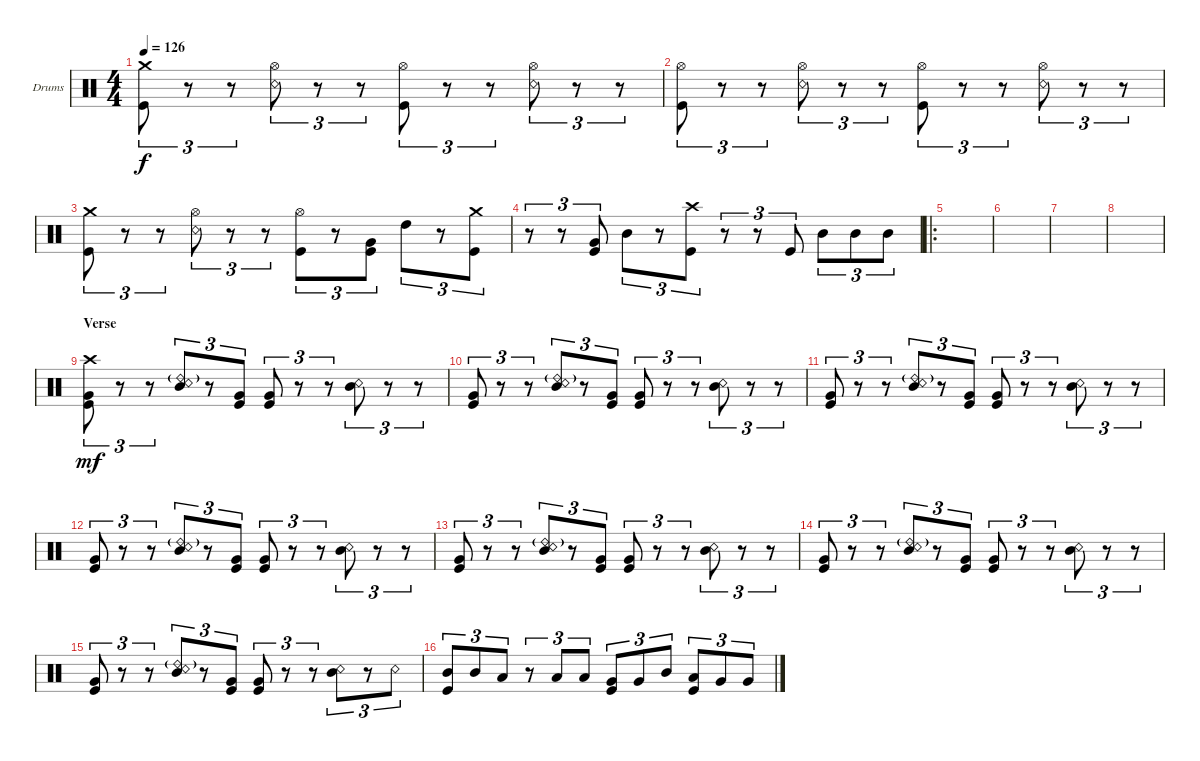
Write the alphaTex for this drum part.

\defaultSystemsLayout 4
\bracketExtendMode groupsimilarinstruments
\firstSystemTrackNameOrientation horizontal
\otherSystemsTrackNameOrientation horizontal
\track ("Dominic Howard" "Drums") {instrument percussion}
\staff {score}
\articulation defaults
\ts (4 4)
\tempo 126
\clef neutral
\ks c
("Kick (hit)" "Crash medium (hit)").8{tu (3 2) dy f} r.8{tu (3 2)} r.8{tu (3 2)} ("Snare (rim shot)" "Hi-Hat (open)").8{tu (3 2)} r.8{tu (3 2)} r.8{tu (3 2)} ("Kick (hit)" "Hi-Hat (open)").8{tu (3 2)} r.8{tu (3 2)} r.8{tu (3 2)} ("Snare (rim shot)" "Hi-Hat (open)").8{tu (3 2)} r.8{tu (3 2)} r.8{tu (3 2)} |
("Kick (hit)" "Hi-Hat (open)").8{tu (3 2)} r.8{tu (3 2)} r.8{tu (3 2)} ("Snare (rim shot)" "Hi-Hat (open)").8{tu (3 2)} r.8{tu (3 2)} r.8{tu (3 2)} ("Kick (hit)" "Hi-Hat (open)").8{tu (3 2)} r.8{tu (3 2)} r.8{tu (3 2)} ("Snare (rim shot)" "Hi-Hat (open)").8{tu (3 2)} r.8{tu (3 2)} r.8{tu (3 2)} |
("Kick (hit)" "Crash medium (hit)").8{tu (3 2)} r.8{tu (3 2)} r.8{tu (3 2)} ("Snare (rim shot)" "Hi-Hat (open)").8{tu (3 2)} r.8{tu (3 2)} r.8{tu (3 2)} ("Kick (hit)" "Hi-Hat (open)").8{tu (3 2)} r.8{tu (3 2)} ("Kick (hit)" "Very Low Tom (hit)").8{tu (3 2)} "High Tom (hit)".8{tu (3 2)} r.8{tu (3 2)} ("Kick (hit)" "Crash medium (hit)").8{tu (3 2)} |
r.8{tu (3 2)} r.8{tu (3 2)} ("Kick (hit)" "Very Low Tom (hit)").8{tu (3 2)} "Mid Tom (hit)".8{tu (3 2)} r.8{tu (3 2)} ("Kick (hit)" "Crash high (hit)").8{tu (3 2)} r.8{tu (3 2)} r.8{tu (3 2)} "Kick (hit)".8{tu (3 2)} "Mid Tom (hit)".8{tu (3 2)} "Mid Tom (hit)".8{tu (3 2)} "Mid Tom (hit)".8{tu (3 2)} |
\ro
|
|
|
|
\section ("" "Verse")
("Kick (hit)" "Very Low Tom (hit)" "Crash high (hit)").8{tu (3 2) dy mf} r.8{tu (3 2)} r.8{tu (3 2)} ("Snare (rim shot)" "Mid Tom (hit)" "Ride (bell) 2"{g}).8{tu (3 2)} r.8{tu (3 2)} ("Kick (hit)" "Very Low Tom (hit)").8{tu (3 2)} ("Kick (hit)" "Very Low Tom (hit)").8{tu (3 2)} r.8{tu (3 2)} r.8{tu (3 2)} ("Snare (rim shot)" "Mid Tom (hit)").8{tu (3 2)} r.8{tu (3 2)} r.8{tu (3 2)} |
("Kick (hit)" "Very Low Tom (hit)").8{tu (3 2)} r.8{tu (3 2)} r.8{tu (3 2)} ("Snare (rim shot)" "Mid Tom (hit)" "Ride (bell) 2"{g}).8{tu (3 2)} r.8{tu (3 2)} ("Kick (hit)" "Very Low Tom (hit)").8{tu (3 2)} ("Kick (hit)" "Very Low Tom (hit)").8{tu (3 2)} r.8{tu (3 2)} r.8{tu (3 2)} ("Snare (rim shot)" "Mid Tom (hit)").8{tu (3 2)} r.8{tu (3 2)} r.8{tu (3 2)} |
("Kick (hit)" "Very Low Tom (hit)").8{tu (3 2)} r.8{tu (3 2)} r.8{tu (3 2)} ("Snare (rim shot)" "Mid Tom (hit)" "Ride (bell) 2"{g}).8{tu (3 2)} r.8{tu (3 2)} ("Kick (hit)" "Very Low Tom (hit)").8{tu (3 2)} ("Kick (hit)" "Very Low Tom (hit)").8{tu (3 2)} r.8{tu (3 2)} r.8{tu (3 2)} ("Snare (rim shot)" "Mid Tom (hit)").8{tu (3 2)} r.8{tu (3 2)} r.8{tu (3 2)} |
("Kick (hit)" "Very Low Tom (hit)").8{tu (3 2)} r.8{tu (3 2)} r.8{tu (3 2)} ("Snare (rim shot)" "Mid Tom (hit)" "Ride (bell) 2"{g}).8{tu (3 2)} r.8{tu (3 2)} ("Kick (hit)" "Very Low Tom (hit)").8{tu (3 2)} ("Kick (hit)" "Very Low Tom (hit)").8{tu (3 2)} r.8{tu (3 2)} r.8{tu (3 2)} ("Snare (rim shot)" "Mid Tom (hit)").8{tu (3 2)} r.8{tu (3 2)} r.8{tu (3 2)} |
("Kick (hit)" "Very Low Tom (hit)").8{tu (3 2)} r.8{tu (3 2)} r.8{tu (3 2)} ("Snare (rim shot)" "Mid Tom (hit)" "Ride (bell) 2"{g}).8{tu (3 2)} r.8{tu (3 2)} ("Kick (hit)" "Very Low Tom (hit)").8{tu (3 2)} ("Kick (hit)" "Very Low Tom (hit)").8{tu (3 2)} r.8{tu (3 2)} r.8{tu (3 2)} ("Snare (rim shot)" "Mid Tom (hit)").8{tu (3 2)} r.8{tu (3 2)} r.8{tu (3 2)} |
("Kick (hit)" "Very Low Tom (hit)").8{tu (3 2)} r.8{tu (3 2)} r.8{tu (3 2)} ("Snare (rim shot)" "Mid Tom (hit)" "Ride (bell) 2"{g}).8{tu (3 2)} r.8{tu (3 2)} ("Kick (hit)" "Very Low Tom (hit)").8{tu (3 2)} ("Kick (hit)" "Very Low Tom (hit)").8{tu (3 2)} r.8{tu (3 2)} r.8{tu (3 2)} ("Snare (rim shot)" "Mid Tom (hit)").8{tu (3 2)} r.8{tu (3 2)} r.8{tu (3 2)} |
("Kick (hit)" "Very Low Tom (hit)").8{tu (3 2)} r.8{tu (3 2)} r.8{tu (3 2)} ("Snare (rim shot)" "Mid Tom (hit)" "Ride (bell) 2"{g}).8{tu (3 2)} r.8{tu (3 2)} ("Kick (hit)" "Very Low Tom (hit)").8{tu (3 2)} ("Kick (hit)" "Very Low Tom (hit)").8{tu (3 2)} r.8{tu (3 2)} r.8{tu (3 2)} ("Snare (rim shot)" "Mid Tom (hit)").8{tu (3 2)} r.8{tu (3 2)} "Snare (rim shot)".8{tu (3 2)} |
("Mid Tom (hit)" "Kick (hit)").8{tu (3 2)} "Mid Tom (hit)".8{tu (3 2)} "Low Tom (hit)".8{tu (3 2)} r.8{tu (3 2)} "Low Tom (hit)".8{tu (3 2)} "Low Tom (hit)".8{tu (3 2)} ("Very Low Tom (hit)" "Kick (hit)").8{tu (3 2)} "Very Low Tom (hit)".8{tu (3 2)} "Mid Tom (hit)".8{tu (3 2)} ("Low Tom (hit)" "Kick (hit)").8{tu (3 2)} "Very Low Tom (hit)".8{tu (3 2)} "Very Low Tom (hit)".8{tu (3 2)}
